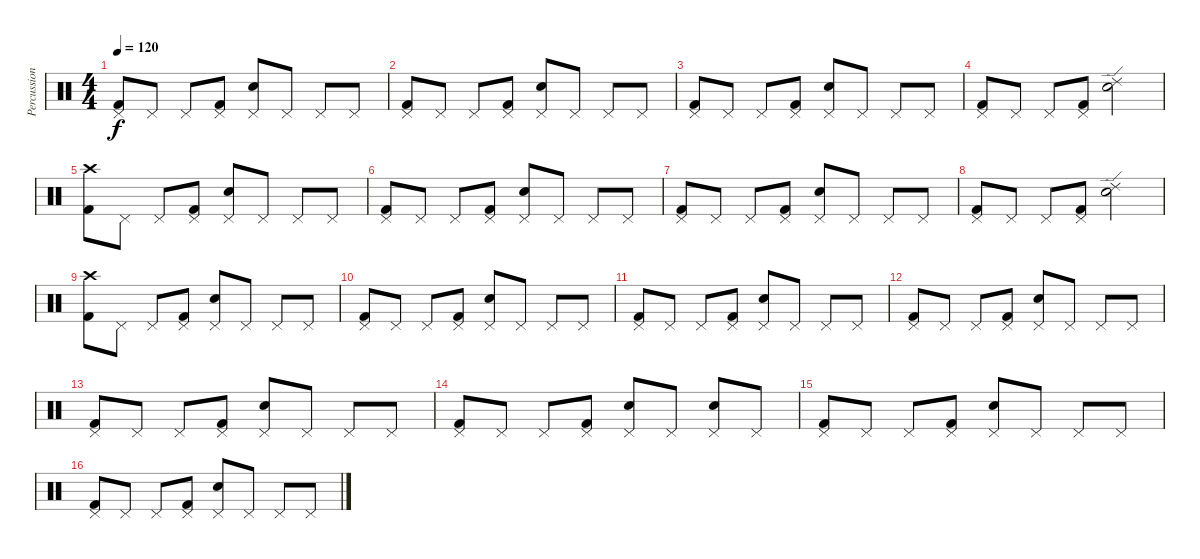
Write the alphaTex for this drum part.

\track ("Percussion" "Percussion") {instrument percussion}
\staff {score}
\articulation defaults
\ts (4 4)
\tempo 120
\clef neutral
\ks c
("Pedal Hi-Hat (hit)" "Kick (hit) 2").8{dy f} "Pedal Hi-Hat (hit)".8 "Pedal Hi-Hat (hit)".8 ("Pedal Hi-Hat (hit)" "Kick (hit) 2").8 ("Pedal Hi-Hat (hit)" "Electric Snare (hit)").8 "Pedal Hi-Hat (hit)".8 "Pedal Hi-Hat (hit)".8 "Pedal Hi-Hat (hit)".8 |
("Pedal Hi-Hat (hit)" "Kick (hit) 2").8 "Pedal Hi-Hat (hit)".8 "Pedal Hi-Hat (hit)".8 ("Pedal Hi-Hat (hit)" "Kick (hit) 2").8 ("Pedal Hi-Hat (hit)" "Electric Snare (hit)").8 "Pedal Hi-Hat (hit)".8 "Pedal Hi-Hat (hit)".8 "Pedal Hi-Hat (hit)".8 |
("Pedal Hi-Hat (hit)" "Kick (hit) 2").8 "Pedal Hi-Hat (hit)".8 "Pedal Hi-Hat (hit)".8 ("Pedal Hi-Hat (hit)" "Kick (hit) 2").8 ("Pedal Hi-Hat (hit)" "Electric Snare (hit)").8 "Pedal Hi-Hat (hit)".8 "Pedal Hi-Hat (hit)".8 "Pedal Hi-Hat (hit)".8 |
("Pedal Hi-Hat (hit)" "Kick (hit) 2").8 "Pedal Hi-Hat (hit)".8 "Pedal Hi-Hat (hit)".8 ("Pedal Hi-Hat (hit)" "Kick (hit) 2").8 ("Ride (edge) 2" "Electric Snare (hit)").2 |
("Crash high (hit)" "Kick (hit) 2").8 "Pedal Hi-Hat (hit)".8 "Pedal Hi-Hat (hit)".8 ("Pedal Hi-Hat (hit)" "Kick (hit) 2").8 ("Pedal Hi-Hat (hit)" "Electric Snare (hit)").8 "Pedal Hi-Hat (hit)".8 "Pedal Hi-Hat (hit)".8 "Pedal Hi-Hat (hit)".8 |
("Pedal Hi-Hat (hit)" "Kick (hit) 2").8 "Pedal Hi-Hat (hit)".8 "Pedal Hi-Hat (hit)".8 ("Pedal Hi-Hat (hit)" "Kick (hit) 2").8 ("Pedal Hi-Hat (hit)" "Electric Snare (hit)").8 "Pedal Hi-Hat (hit)".8 "Pedal Hi-Hat (hit)".8 "Pedal Hi-Hat (hit)".8 |
("Pedal Hi-Hat (hit)" "Kick (hit) 2").8 "Pedal Hi-Hat (hit)".8 "Pedal Hi-Hat (hit)".8 ("Pedal Hi-Hat (hit)" "Kick (hit) 2").8 ("Pedal Hi-Hat (hit)" "Electric Snare (hit)").8 "Pedal Hi-Hat (hit)".8 "Pedal Hi-Hat (hit)".8 "Pedal Hi-Hat (hit)".8 |
("Pedal Hi-Hat (hit)" "Kick (hit) 2").8 "Pedal Hi-Hat (hit)".8 "Pedal Hi-Hat (hit)".8 ("Pedal Hi-Hat (hit)" "Kick (hit) 2").8 ("Ride (edge) 2" "Electric Snare (hit)").2 |
("Crash high (hit)" "Kick (hit) 2").8 "Pedal Hi-Hat (hit)".8 "Pedal Hi-Hat (hit)".8 ("Pedal Hi-Hat (hit)" "Kick (hit) 2").8 ("Pedal Hi-Hat (hit)" "Electric Snare (hit)").8 "Pedal Hi-Hat (hit)".8 "Pedal Hi-Hat (hit)".8 "Pedal Hi-Hat (hit)".8 |
("Pedal Hi-Hat (hit)" "Kick (hit) 2").8 "Pedal Hi-Hat (hit)".8 "Pedal Hi-Hat (hit)".8 ("Pedal Hi-Hat (hit)" "Kick (hit) 2").8 ("Pedal Hi-Hat (hit)" "Electric Snare (hit)").8 "Pedal Hi-Hat (hit)".8 "Pedal Hi-Hat (hit)".8 "Pedal Hi-Hat (hit)".8 |
("Pedal Hi-Hat (hit)" "Kick (hit) 2").8 "Pedal Hi-Hat (hit)".8 "Pedal Hi-Hat (hit)".8 ("Pedal Hi-Hat (hit)" "Kick (hit) 2").8 ("Pedal Hi-Hat (hit)" "Electric Snare (hit)").8 "Pedal Hi-Hat (hit)".8 "Pedal Hi-Hat (hit)".8 "Pedal Hi-Hat (hit)".8 |
("Pedal Hi-Hat (hit)" "Kick (hit) 2").8 "Pedal Hi-Hat (hit)".8 "Pedal Hi-Hat (hit)".8 ("Pedal Hi-Hat (hit)" "Kick (hit) 2").8 ("Pedal Hi-Hat (hit)" "Electric Snare (hit)").8 "Pedal Hi-Hat (hit)".8 "Pedal Hi-Hat (hit)".8 "Pedal Hi-Hat (hit)".8 |
("Pedal Hi-Hat (hit)" "Kick (hit) 2").8 "Pedal Hi-Hat (hit)".8 "Pedal Hi-Hat (hit)".8 ("Pedal Hi-Hat (hit)" "Kick (hit) 2").8 ("Pedal Hi-Hat (hit)" "Electric Snare (hit)").8 "Pedal Hi-Hat (hit)".8 "Pedal Hi-Hat (hit)".8 "Pedal Hi-Hat (hit)".8 |
("Pedal Hi-Hat (hit)" "Kick (hit) 2").8 "Pedal Hi-Hat (hit)".8 "Pedal Hi-Hat (hit)".8 ("Pedal Hi-Hat (hit)" "Kick (hit) 2").8 ("Pedal Hi-Hat (hit)" "Electric Snare (hit)").8 "Pedal Hi-Hat (hit)".8 ("Pedal Hi-Hat (hit)" "Electric Snare (hit)").8 "Pedal Hi-Hat (hit)".8 |
("Pedal Hi-Hat (hit)" "Kick (hit) 2").8 "Pedal Hi-Hat (hit)".8 "Pedal Hi-Hat (hit)".8 ("Pedal Hi-Hat (hit)" "Kick (hit) 2").8 ("Pedal Hi-Hat (hit)" "Electric Snare (hit)").8 "Pedal Hi-Hat (hit)".8 "Pedal Hi-Hat (hit)".8 "Pedal Hi-Hat (hit)".8 |
("Pedal Hi-Hat (hit)" "Kick (hit) 2").8 "Pedal Hi-Hat (hit)".8 "Pedal Hi-Hat (hit)".8 ("Pedal Hi-Hat (hit)" "Kick (hit) 2").8 ("Pedal Hi-Hat (hit)" "Electric Snare (hit)").8 "Pedal Hi-Hat (hit)".8 "Pedal Hi-Hat (hit)".8 "Pedal Hi-Hat (hit)".8
